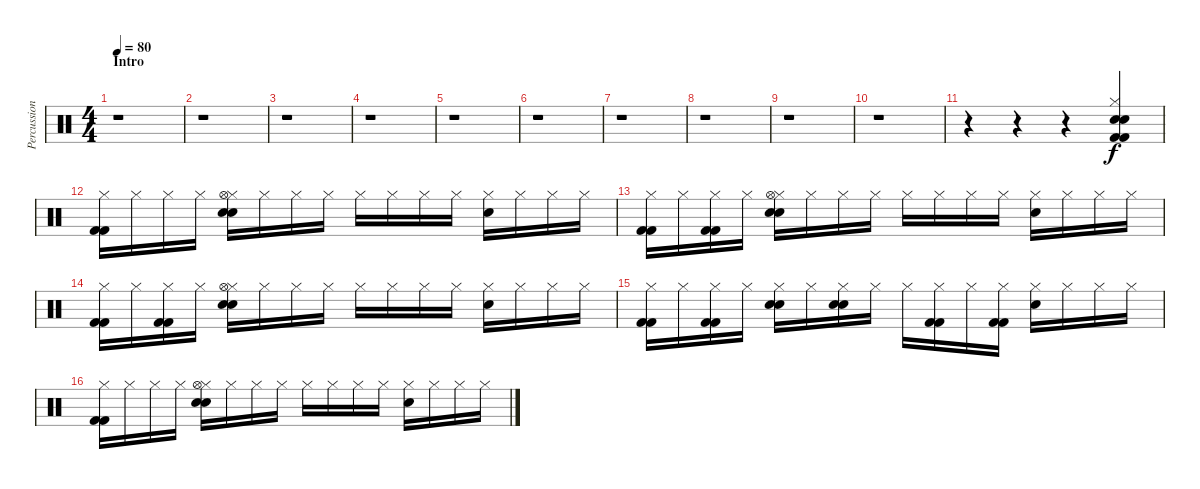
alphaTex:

\track ("Percussions" "Percussion") {instrument percussion}
\staff {score}
\articulation defaults
\ts (4 4)
\section ("" "Intro")
\tempo 80
\clef neutral
\ks c
r.1{dy f} |
r.1 |
r.1 |
r.1 |
r.1 |
r.1 |
r.1 |
r.1 |
r.1 |
r.1 |
r.4 r.4 r.4 ("Electric Snare (hit)" "Hi-Hat (closed)" "Electric Snare (hit)" "Kick (hit) 2" "Kick (hit) 2").4 |
("Hi-Hat (closed)" "Kick (hit) 2" "Kick (hit) 2").16 "Hi-Hat (closed)".16 "Hi-Hat (closed)".16 "Hi-Hat (closed)".16 ("Electric Snare (hit)" "Hi-Hat (closed)" "Electric Snare (hit)" "Hi-Hat (open)").16 "Hi-Hat (closed)".16 "Hi-Hat (closed)".16 "Hi-Hat (closed)".16 "Hi-Hat (closed)".16 "Hi-Hat (closed)".16 "Hi-Hat (closed)".16 "Hi-Hat (closed)".16 ("Electric Snare (hit)" "Hi-Hat (closed)").16 "Hi-Hat (closed)".16 "Hi-Hat (closed)".16 "Hi-Hat (closed)".16 |
("Hi-Hat (closed)" "Kick (hit) 2" "Kick (hit) 2").16 "Hi-Hat (closed)".16 ("Hi-Hat (closed)" "Kick (hit) 2" "Kick (hit) 2").16 "Hi-Hat (closed)".16 ("Electric Snare (hit)" "Hi-Hat (closed)" "Electric Snare (hit)" "Hi-Hat (open)").16 "Hi-Hat (closed)".16 "Hi-Hat (closed)".16 "Hi-Hat (closed)".16 "Hi-Hat (closed)".16 "Hi-Hat (closed)".16 "Hi-Hat (closed)".16 "Hi-Hat (closed)".16 ("Electric Snare (hit)" "Hi-Hat (closed)").16 "Hi-Hat (closed)".16 "Hi-Hat (closed)".16 "Hi-Hat (closed)".16 |
("Hi-Hat (closed)" "Kick (hit) 2" "Kick (hit) 2").16 "Hi-Hat (closed)".16 ("Hi-Hat (closed)" "Kick (hit) 2" "Kick (hit) 2").16 "Hi-Hat (closed)".16 ("Electric Snare (hit)" "Hi-Hat (closed)" "Electric Snare (hit)" "Hi-Hat (open)").16 "Hi-Hat (closed)".16 "Hi-Hat (closed)".16 "Hi-Hat (closed)".16 "Hi-Hat (closed)".16 "Hi-Hat (closed)".16 "Hi-Hat (closed)".16 "Hi-Hat (closed)".16 ("Electric Snare (hit)" "Hi-Hat (closed)").16 "Hi-Hat (closed)".16 "Hi-Hat (closed)".16 "Hi-Hat (closed)".16 |
("Hi-Hat (closed)" "Kick (hit) 2" "Kick (hit) 2").16 "Hi-Hat (closed)".16 ("Hi-Hat (closed)" "Kick (hit) 2" "Kick (hit) 2").16 "Hi-Hat (closed)".16 ("Electric Snare (hit)" "Hi-Hat (closed)" "Electric Snare (hit)").16 "Hi-Hat (closed)".16 ("Electric Snare (hit)" "Hi-Hat (closed)" "Electric Snare (hit)").16 "Hi-Hat (closed)".16 "Hi-Hat (closed)".16 ("Hi-Hat (closed)" "Kick (hit) 2" "Kick (hit) 2").16 "Hi-Hat (closed)".16 ("Hi-Hat (closed)" "Kick (hit) 2" "Kick (hit) 2").16 ("Electric Snare (hit)" "Hi-Hat (closed)").16 "Hi-Hat (closed)".16 "Hi-Hat (closed)".16 "Hi-Hat (closed)".16 |
("Hi-Hat (closed)" "Kick (hit) 2" "Kick (hit) 2").16 "Hi-Hat (closed)".16 "Hi-Hat (closed)".16 "Hi-Hat (closed)".16 ("Electric Snare (hit)" "Hi-Hat (closed)" "Electric Snare (hit)" "Hi-Hat (open)").16 "Hi-Hat (closed)".16 "Hi-Hat (closed)".16 "Hi-Hat (closed)".16 "Hi-Hat (closed)".16 "Hi-Hat (closed)".16 "Hi-Hat (closed)".16 "Hi-Hat (closed)".16 ("Electric Snare (hit)" "Hi-Hat (closed)").16 "Hi-Hat (closed)".16 "Hi-Hat (closed)".16 "Hi-Hat (closed)".16
